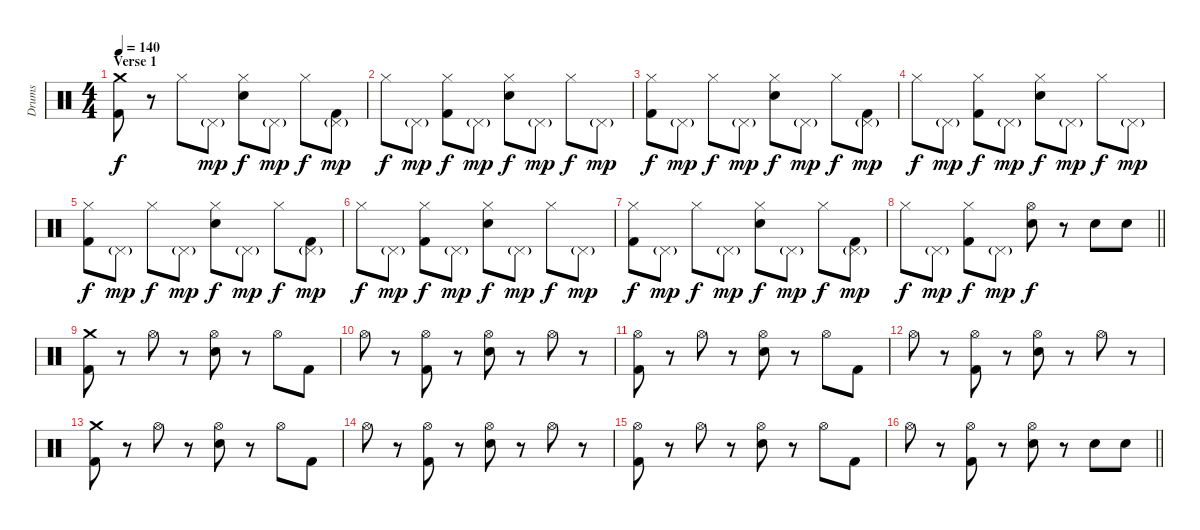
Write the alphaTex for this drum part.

\track ("Drums" "Drums") {instrument percussion}
\staff {score}
\articulation defaults
\ts (4 4)
\section ("" "Verse 1")
\tempo 140
\clef neutral
\ks c
("Crash medium (hit)" "Kick (hit) 2").8{dy f} r.8 "Hi-Hat (closed)".8 "Pedal Hi-Hat (hit)"{g}.8{dy mp} ("Hi-Hat (closed)" "Electric Snare (hit)").8{dy f} "Pedal Hi-Hat (hit)"{g}.8{dy mp} "Hi-Hat (closed)".8{dy f} ("Pedal Hi-Hat (hit)"{g} "Kick (hit) 2").8{dy mp} |
"Hi-Hat (closed)".8{dy f} "Pedal Hi-Hat (hit)"{g}.8{dy mp} ("Hi-Hat (closed)" "Kick (hit) 2").8{dy f} "Pedal Hi-Hat (hit)"{g}.8{dy mp} ("Hi-Hat (closed)" "Electric Snare (hit)").8{dy f} "Pedal Hi-Hat (hit)"{g}.8{dy mp} "Hi-Hat (closed)".8{dy f} "Pedal Hi-Hat (hit)"{g}.8{dy mp} |
("Hi-Hat (closed)" "Kick (hit) 2").8{dy f} "Pedal Hi-Hat (hit)"{g}.8{dy mp} "Hi-Hat (closed)".8{dy f} "Pedal Hi-Hat (hit)"{g}.8{dy mp} ("Hi-Hat (closed)" "Electric Snare (hit)").8{dy f} "Pedal Hi-Hat (hit)"{g}.8{dy mp} "Hi-Hat (closed)".8{dy f} ("Pedal Hi-Hat (hit)"{g} "Kick (hit) 2").8{dy mp} |
"Hi-Hat (closed)".8{dy f} "Pedal Hi-Hat (hit)"{g}.8{dy mp} ("Hi-Hat (closed)" "Kick (hit) 2").8{dy f} "Pedal Hi-Hat (hit)"{g}.8{dy mp} ("Hi-Hat (closed)" "Electric Snare (hit)").8{dy f} "Pedal Hi-Hat (hit)"{g}.8{dy mp} "Hi-Hat (closed)".8{dy f} "Pedal Hi-Hat (hit)"{g}.8{dy mp} |
("Hi-Hat (closed)" "Kick (hit) 2").8{dy f} "Pedal Hi-Hat (hit)"{g}.8{dy mp} "Hi-Hat (closed)".8{dy f} "Pedal Hi-Hat (hit)"{g}.8{dy mp} ("Hi-Hat (closed)" "Electric Snare (hit)").8{dy f} "Pedal Hi-Hat (hit)"{g}.8{dy mp} "Hi-Hat (closed)".8{dy f} ("Pedal Hi-Hat (hit)"{g} "Kick (hit) 2").8{dy mp} |
"Hi-Hat (closed)".8{dy f} "Pedal Hi-Hat (hit)"{g}.8{dy mp} ("Hi-Hat (closed)" "Kick (hit) 2").8{dy f} "Pedal Hi-Hat (hit)"{g}.8{dy mp} ("Hi-Hat (closed)" "Electric Snare (hit)").8{dy f} "Pedal Hi-Hat (hit)"{g}.8{dy mp} "Hi-Hat (closed)".8{dy f} "Pedal Hi-Hat (hit)"{g}.8{dy mp} |
("Hi-Hat (closed)" "Kick (hit) 2").8{dy f} "Pedal Hi-Hat (hit)"{g}.8{dy mp} "Hi-Hat (closed)".8{dy f} "Pedal Hi-Hat (hit)"{g}.8{dy mp} ("Hi-Hat (closed)" "Electric Snare (hit)").8{dy f} "Pedal Hi-Hat (hit)"{g}.8{dy mp} "Hi-Hat (closed)".8{dy f} ("Pedal Hi-Hat (hit)"{g} "Kick (hit) 2").8{dy mp} |
\barLineRight lightlight "Hi-Hat (closed)".8{dy f} "Pedal Hi-Hat (hit)"{g}.8{dy mp}
("Hi-Hat (closed)" "Kick (hit) 2").8{dy f} "Pedal Hi-Hat (hit)"{g}.8{dy mp} ("Hi-Hat (open)" "Electric Snare (hit)").8{dy f} r.8 "Electric Snare (hit)".8 "Electric Snare (hit)".8 |
("Crash medium (hit)" "Kick (hit) 2").8 r.8 "Hi-Hat (open)".8 r.8 ("Hi-Hat (open)" "Electric Snare (hit)").8 r.8 "Hi-Hat (open)".8 "Kick (hit) 2".8 |
"Hi-Hat (open)".8 r.8 ("Hi-Hat (open)" "Kick (hit) 2").8 r.8 ("Hi-Hat (open)" "Electric Snare (hit)").8 r.8 "Hi-Hat (open)".8 r.8 |
("Hi-Hat (open)" "Kick (hit) 2").8 r.8 "Hi-Hat (open)".8 r.8 ("Hi-Hat (open)" "Electric Snare (hit)").8 r.8 "Hi-Hat (open)".8 "Kick (hit) 2".8 |
"Hi-Hat (open)".8 r.8 ("Hi-Hat (open)" "Kick (hit) 2").8 r.8 ("Hi-Hat (open)" "Electric Snare (hit)").8 r.8 "Hi-Hat (open)".8 r.8 |
("Crash medium (hit)" "Kick (hit) 2").8 r.8 "Hi-Hat (open)".8 r.8 ("Hi-Hat (open)" "Electric Snare (hit)").8 r.8 "Hi-Hat (open)".8 "Kick (hit) 2".8 |
"Hi-Hat (open)".8 r.8 ("Hi-Hat (open)" "Kick (hit) 2").8 r.8 ("Hi-Hat (open)" "Electric Snare (hit)").8 r.8 "Hi-Hat (open)".8 r.8 |
("Hi-Hat (open)" "Kick (hit) 2").8 r.8 "Hi-Hat (open)".8 r.8 ("Hi-Hat (open)" "Electric Snare (hit)").8 r.8 "Hi-Hat (open)".8 "Kick (hit) 2".8 |
\barLineRight lightlight "Hi-Hat (open)".8
r.8 ("Hi-Hat (open)" "Kick (hit) 2").8 r.8 ("Hi-Hat (open)" "Electric Snare (hit)").8 r.8 "Electric Snare (hit)".8 "Electric Snare (hit)".8
